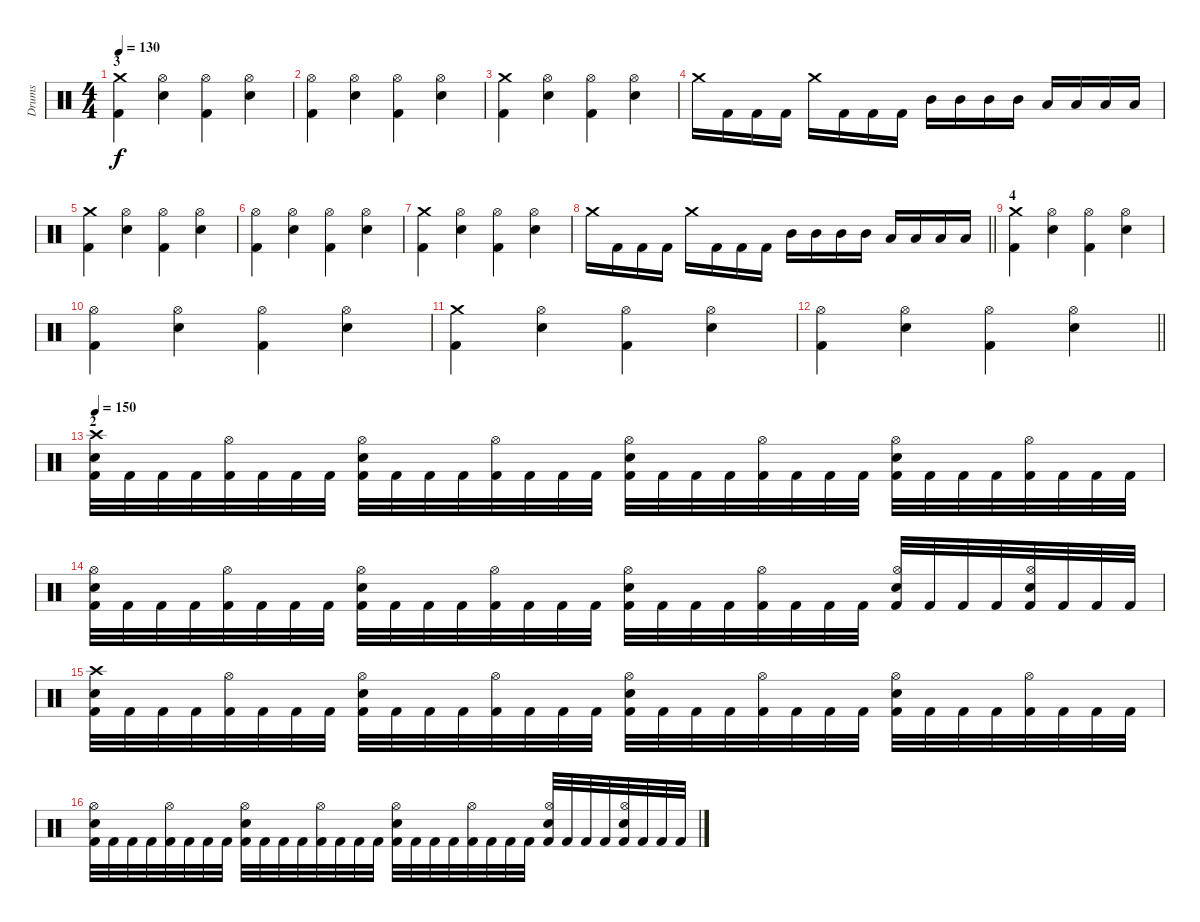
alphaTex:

\track ("Drums" "Drums") {instrument percussion}
\staff {score}
\articulation defaults
\ts (4 4)
\section ("" "3")
\tempo 130
\clef neutral
\ks c
("Crash medium (hit)" "Kick (hit) 2").4{dy f} ("Hi-Hat (open)" "Snare (hit) 2").4 ("Hi-Hat (open)" "Kick (hit) 2").4 ("Hi-Hat (open)" "Snare (hit) 2").4 |
("Hi-Hat (open)" "Kick (hit) 2").4 ("Hi-Hat (open)" "Snare (hit) 2").4 ("Hi-Hat (open)" "Kick (hit) 2").4 ("Hi-Hat (open)" "Snare (hit) 2").4 |
("Crash medium (hit)" "Kick (hit) 2").4 ("Hi-Hat (open)" "Snare (hit) 2").4 ("Hi-Hat (open)" "Kick (hit) 2").4 ("Hi-Hat (open)" "Snare (hit) 2").4 |
"Crash medium (hit)".16 "Kick (hit) 2".16 "Kick (hit) 2".16 "Kick (hit) 2".16 "Crash medium (hit)".16 "Kick (hit) 2".16 "Kick (hit) 2".16 "Kick (hit) 2".16 "Mid Tom (hit)".16 "Mid Tom (hit)".16 "Mid Tom (hit)".16 "Mid Tom (hit)".16 "Low Tom (hit)".16 "Low Tom (hit)".16 "Low Floor Tom (hit)".16 "Low Floor Tom (hit)".16 |
("Crash medium (hit)" "Kick (hit) 2").4 ("Hi-Hat (open)" "Snare (hit) 2").4 ("Hi-Hat (open)" "Kick (hit) 2").4 ("Hi-Hat (open)" "Snare (hit) 2").4 |
("Hi-Hat (open)" "Kick (hit) 2").4 ("Hi-Hat (open)" "Snare (hit) 2").4 ("Hi-Hat (open)" "Kick (hit) 2").4 ("Hi-Hat (open)" "Snare (hit) 2").4 |
("Crash medium (hit)" "Kick (hit) 2").4 ("Hi-Hat (open)" "Snare (hit) 2").4 ("Hi-Hat (open)" "Kick (hit) 2").4 ("Hi-Hat (open)" "Snare (hit) 2").4 |
\barLineRight lightlight "Crash medium (hit)".16 "Kick (hit) 2".16 "Kick (hit) 2".16 "Kick (hit) 2".16 "Crash medium (hit)".16 "Kick (hit) 2".16 "Kick (hit) 2".16 "Kick (hit) 2".16 "Mid Tom (hit)".16 "Mid Tom (hit)".16 "Mid Tom (hit)".16 "Mid Tom (hit)".16 "Low Tom (hit)".16 "Low Tom (hit)".16 "Low Floor Tom (hit)".16 "Low Floor Tom (hit)".16
|
\section ("" "4")
("Crash medium (hit)" "Kick (hit) 2").4 ("Hi-Hat (open)" "Snare (hit) 2").4 ("Hi-Hat (open)" "Kick (hit) 2").4 ("Hi-Hat (open)" "Snare (hit) 2").4 |
("Hi-Hat (open)" "Kick (hit) 2").4 ("Hi-Hat (open)" "Snare (hit) 2").4 ("Hi-Hat (open)" "Kick (hit) 2").4 ("Hi-Hat (open)" "Snare (hit) 2").4 |
("Crash medium (hit)" "Kick (hit) 2").4 ("Hi-Hat (open)" "Snare (hit) 2").4 ("Hi-Hat (open)" "Kick (hit) 2").4 ("Hi-Hat (open)" "Snare (hit) 2").4 |
\barLineRight lightlight
("Hi-Hat (open)" "Kick (hit) 2").4 ("Hi-Hat (open)" "Snare (hit) 2").4 ("Hi-Hat (open)" "Kick (hit) 2").4 ("Hi-Hat (open)" "Snare (hit) 2").4 |
\section ("" "2")
\tempo 150
("Crash high (hit)" "Snare (hit) 2" "Kick (hit) 2").32 "Kick (hit) 2".32 "Kick (hit) 2".32 "Kick (hit) 2".32 ("Hi-Hat (open)" "Kick (hit) 2").32 "Kick (hit) 2".32 "Kick (hit) 2".32 "Kick (hit) 2".32 ("Hi-Hat (open)" "Snare (hit) 2" "Kick (hit) 2").32 "Kick (hit) 2".32 "Kick (hit) 2".32 "Kick (hit) 2".32 ("Hi-Hat (open)" "Kick (hit) 2").32 "Kick (hit) 2".32 "Kick (hit) 2".32 "Kick (hit) 2".32 ("Hi-Hat (open)" "Snare (hit) 2" "Kick (hit) 2").32 "Kick (hit) 2".32 "Kick (hit) 2".32 "Kick (hit) 2".32 ("Hi-Hat (open)" "Kick (hit) 2").32 "Kick (hit) 2".32 "Kick (hit) 2".32 "Kick (hit) 2".32 ("Hi-Hat (open)" "Snare (hit) 2" "Kick (hit) 2").32 "Kick (hit) 2".32 "Kick (hit) 2".32 "Kick (hit) 2".32 ("Hi-Hat (open)" "Kick (hit) 2").32 "Kick (hit) 2".32 "Kick (hit) 2".32 "Kick (hit) 2".32 |
("Hi-Hat (open)" "Snare (hit) 2" "Kick (hit) 2").32 "Kick (hit) 2".32 "Kick (hit) 2".32 "Kick (hit) 2".32 ("Hi-Hat (open)" "Kick (hit) 2").32 "Kick (hit) 2".32 "Kick (hit) 2".32 "Kick (hit) 2".32 ("Hi-Hat (open)" "Snare (hit) 2" "Kick (hit) 2").32 "Kick (hit) 2".32 "Kick (hit) 2".32 "Kick (hit) 2".32 ("Hi-Hat (open)" "Kick (hit) 2").32 "Kick (hit) 2".32 "Kick (hit) 2".32 "Kick (hit) 2".32 ("Hi-Hat (open)" "Snare (hit) 2" "Kick (hit) 2").32 "Kick (hit) 2".32 "Kick (hit) 2".32 "Kick (hit) 2".32 ("Hi-Hat (open)" "Kick (hit) 2").32 "Kick (hit) 2".32 "Kick (hit) 2".32 "Kick (hit) 2".32 ("Hi-Hat (open)" "Snare (hit) 2" "Kick (hit) 2").32 "Kick (hit) 2".32 "Kick (hit) 2".32 "Kick (hit) 2".32 ("Hi-Hat (open)" "Snare (hit) 2" "Kick (hit) 2").32 "Kick (hit) 2".32 "Kick (hit) 2".32 "Kick (hit) 2".32 |
("Crash high (hit)" "Snare (hit) 2" "Kick (hit) 2").32 "Kick (hit) 2".32 "Kick (hit) 2".32 "Kick (hit) 2".32 ("Hi-Hat (open)" "Kick (hit) 2").32 "Kick (hit) 2".32 "Kick (hit) 2".32 "Kick (hit) 2".32 ("Hi-Hat (open)" "Snare (hit) 2" "Kick (hit) 2").32 "Kick (hit) 2".32 "Kick (hit) 2".32 "Kick (hit) 2".32 ("Hi-Hat (open)" "Kick (hit) 2").32 "Kick (hit) 2".32 "Kick (hit) 2".32 "Kick (hit) 2".32 ("Hi-Hat (open)" "Snare (hit) 2" "Kick (hit) 2").32 "Kick (hit) 2".32 "Kick (hit) 2".32 "Kick (hit) 2".32 ("Hi-Hat (open)" "Kick (hit) 2").32 "Kick (hit) 2".32 "Kick (hit) 2".32 "Kick (hit) 2".32 ("Hi-Hat (open)" "Snare (hit) 2" "Kick (hit) 2").32 "Kick (hit) 2".32 "Kick (hit) 2".32 "Kick (hit) 2".32 ("Hi-Hat (open)" "Kick (hit) 2").32 "Kick (hit) 2".32 "Kick (hit) 2".32 "Kick (hit) 2".32 |
("Hi-Hat (open)" "Snare (hit) 2" "Kick (hit) 2").32 "Kick (hit) 2".32 "Kick (hit) 2".32 "Kick (hit) 2".32 ("Hi-Hat (open)" "Kick (hit) 2").32 "Kick (hit) 2".32 "Kick (hit) 2".32 "Kick (hit) 2".32 ("Hi-Hat (open)" "Snare (hit) 2" "Kick (hit) 2").32 "Kick (hit) 2".32 "Kick (hit) 2".32 "Kick (hit) 2".32 ("Hi-Hat (open)" "Kick (hit) 2").32 "Kick (hit) 2".32 "Kick (hit) 2".32 "Kick (hit) 2".32 ("Hi-Hat (open)" "Snare (hit) 2" "Kick (hit) 2").32 "Kick (hit) 2".32 "Kick (hit) 2".32 "Kick (hit) 2".32 ("Hi-Hat (open)" "Kick (hit) 2").32 "Kick (hit) 2".32 "Kick (hit) 2".32 "Kick (hit) 2".32 ("Hi-Hat (open)" "Snare (hit) 2" "Kick (hit) 2").32 "Kick (hit) 2".32 "Kick (hit) 2".32 "Kick (hit) 2".32 ("Hi-Hat (open)" "Snare (hit) 2" "Kick (hit) 2").32 "Kick (hit) 2".32 "Kick (hit) 2".32 "Kick (hit) 2".32
